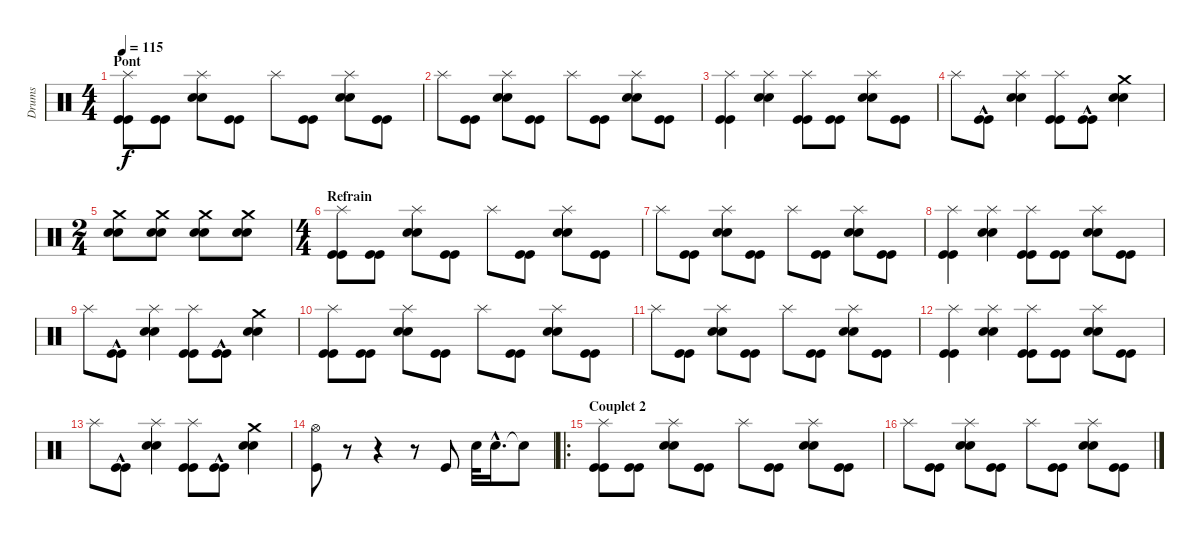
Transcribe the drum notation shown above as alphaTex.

\track ("Drums" "Drums") {instrument percussion}
\staff {score}
\articulation defaults
\ts (4 4)
\section ("" "Pont")
\tempo 115
\clef neutral
\ks c
("Kick (hit)" "Kick (hit)" "Splash (hit)").8{dy f} ("Kick (hit)" "Kick (hit)").8 ("Snare (hit) 2" "Snare (hit) 2" "Splash (hit)").8 ("Kick (hit)" "Kick (hit)").8 "Splash (hit)".8 ("Kick (hit)" "Kick (hit)").8 ("Snare (hit) 2" "Snare (hit) 2" "Splash (hit)").8 ("Kick (hit)" "Kick (hit)").8 |
"Splash (hit)".8 ("Kick (hit)" "Kick (hit)").8 ("Snare (hit) 2" "Snare (hit) 2" "Splash (hit)").8 ("Kick (hit)" "Kick (hit)").8 "Splash (hit)".8 ("Kick (hit)" "Kick (hit)").8 ("Snare (hit) 2" "Snare (hit) 2" "Splash (hit)").8 ("Kick (hit)" "Kick (hit)").8 |
("Kick (hit)" "Kick (hit)" "Splash (hit)").4 ("Snare (hit) 2" "Snare (hit) 2" "Splash (hit)").4 ("Kick (hit)" "Kick (hit)" "Splash (hit)").8 ("Kick (hit)" "Kick (hit)").8 ("Snare (hit) 2" "Snare (hit) 2" "Splash (hit)").8 ("Kick (hit)" "Kick (hit)").8 |
"Splash (hit)".8 ("Kick (hit)"{hac} "Kick (hit)"{hac}).8 ("Snare (hit) 2" "Snare (hit) 2" "Splash (hit)").4 ("Kick (hit)" "Kick (hit)" "Splash (hit)").8 ("Kick (hit)"{hac} "Kick (hit)"{hac}).8 ("Snare (hit) 2" "Snare (hit) 2" "Crash medium (hit)").4 |
\ts (2 4)
("Snare (hit) 2" "Snare (hit) 2" "Crash medium (hit)").8 ("Snare (hit) 2" "Snare (hit) 2" "Crash medium (hit)").8 ("Snare (hit) 2" "Snare (hit) 2" "Crash medium (hit)").8 ("Snare (hit) 2" "Snare (hit) 2" "Crash medium (hit)").8 |
\ts (4 4)
\section ("" "Refrain")
("Kick (hit)" "Kick (hit)" "Splash (hit)").8 ("Kick (hit)" "Kick (hit)").8 ("Snare (hit) 2" "Snare (hit) 2" "Splash (hit)").8 ("Kick (hit)" "Kick (hit)").8 "Splash (hit)".8 ("Kick (hit)" "Kick (hit)").8 ("Snare (hit) 2" "Snare (hit) 2" "Splash (hit)").8 ("Kick (hit)" "Kick (hit)").8 |
"Splash (hit)".8 ("Kick (hit)" "Kick (hit)").8 ("Snare (hit) 2" "Snare (hit) 2" "Splash (hit)").8 ("Kick (hit)" "Kick (hit)").8 "Splash (hit)".8 ("Kick (hit)" "Kick (hit)").8 ("Snare (hit) 2" "Snare (hit) 2" "Splash (hit)").8 ("Kick (hit)" "Kick (hit)").8 |
("Kick (hit)" "Kick (hit)" "Splash (hit)").4 ("Snare (hit) 2" "Snare (hit) 2" "Splash (hit)").4 ("Kick (hit)" "Kick (hit)" "Splash (hit)").8 ("Kick (hit)" "Kick (hit)").8 ("Snare (hit) 2" "Snare (hit) 2" "Splash (hit)").8 ("Kick (hit)" "Kick (hit)").8 |
"Splash (hit)".8 ("Kick (hit)"{hac} "Kick (hit)"{hac}).8 ("Snare (hit) 2" "Snare (hit) 2" "Splash (hit)").4 ("Kick (hit)" "Kick (hit)" "Splash (hit)").8 ("Kick (hit)"{hac} "Kick (hit)"{hac}).8 ("Snare (hit) 2" "Snare (hit) 2" "Crash medium (hit)").4 |
("Kick (hit)" "Kick (hit)" "Splash (hit)").8 ("Kick (hit)" "Kick (hit)").8 ("Snare (hit) 2" "Snare (hit) 2" "Splash (hit)").8 ("Kick (hit)" "Kick (hit)").8 "Splash (hit)".8 ("Kick (hit)" "Kick (hit)").8 ("Snare (hit) 2" "Snare (hit) 2" "Splash (hit)").8 ("Kick (hit)" "Kick (hit)").8 |
"Splash (hit)".8 ("Kick (hit)" "Kick (hit)").8 ("Snare (hit) 2" "Snare (hit) 2" "Splash (hit)").8 ("Kick (hit)" "Kick (hit)").8 "Splash (hit)".8 ("Kick (hit)" "Kick (hit)").8 ("Snare (hit) 2" "Snare (hit) 2" "Splash (hit)").8 ("Kick (hit)" "Kick (hit)").8 |
("Kick (hit)" "Kick (hit)" "Splash (hit)").4 ("Snare (hit) 2" "Snare (hit) 2" "Splash (hit)").4 ("Kick (hit)" "Kick (hit)" "Splash (hit)").8 ("Kick (hit)" "Kick (hit)").8 ("Snare (hit) 2" "Snare (hit) 2" "Splash (hit)").8 ("Kick (hit)" "Kick (hit)").8 |
"Splash (hit)".8 ("Kick (hit)"{hac} "Kick (hit)"{hac}).8 ("Snare (hit) 2" "Snare (hit) 2" "Splash (hit)").4 ("Kick (hit)" "Kick (hit)" "Splash (hit)").8 ("Kick (hit)"{hac} "Kick (hit)"{hac}).8 ("Snare (hit) 2" "Snare (hit) 2" "Crash medium (hit)").4 |
("Hi-Hat (open)" "Kick (hit)").8 r.8 r.4 r.8 "Kick (hit)".8 "Snare (hit) 2".32 "Snare (hit) 2"{hac}.16{d} "Snare (hit)"{t}.8 |
\ro
\section ("" "Couplet 2")
("Kick (hit)" "Kick (hit)" "Splash (hit)").8 ("Kick (hit)" "Kick (hit)").8 ("Snare (hit) 2" "Snare (hit) 2" "Splash (hit)").8 ("Kick (hit)" "Kick (hit)").8 "Splash (hit)".8 ("Kick (hit)" "Kick (hit)").8 ("Snare (hit) 2" "Snare (hit) 2" "Splash (hit)").8 ("Kick (hit)" "Kick (hit)").8 |
"Splash (hit)".8 ("Kick (hit)" "Kick (hit)").8 ("Snare (hit) 2" "Snare (hit) 2" "Splash (hit)").8 ("Kick (hit)" "Kick (hit)").8 "Splash (hit)".8 ("Kick (hit)" "Kick (hit)").8 ("Snare (hit) 2" "Snare (hit) 2" "Splash (hit)").8 ("Kick (hit)" "Kick (hit)").8
